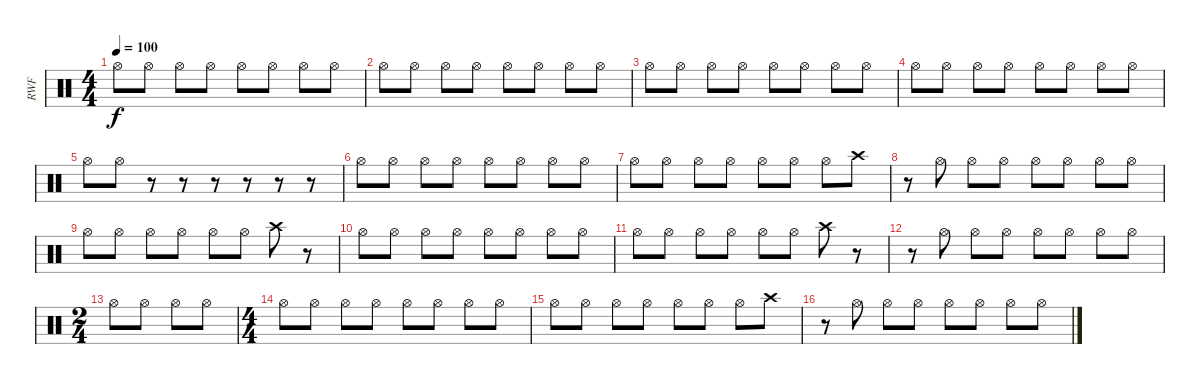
\track ("RWF" "RWF") {instrument percussion}
\staff {score}
\articulation defaults
\ts (4 4)
\tempo 100
\clef neutral
\ks c "Hi-Hat (open)".8{dy f} "Hi-Hat (open)".8 "Hi-Hat (open)".8 "Hi-Hat (open)".8 "Hi-Hat (open)".8 "Hi-Hat (open)".8 "Hi-Hat (open)".8 "Hi-Hat (open)".8
|
"Hi-Hat (open)".8 "Hi-Hat (open)".8 "Hi-Hat (open)".8 "Hi-Hat (open)".8 "Hi-Hat (open)".8 "Hi-Hat (open)".8 "Hi-Hat (open)".8 "Hi-Hat (open)".8 |
"Hi-Hat (open)".8 "Hi-Hat (open)".8 "Hi-Hat (open)".8 "Hi-Hat (open)".8 "Hi-Hat (open)".8 "Hi-Hat (open)".8 "Hi-Hat (open)".8 "Hi-Hat (open)".8 |
"Hi-Hat (open)".8 "Hi-Hat (open)".8 "Hi-Hat (open)".8 "Hi-Hat (open)".8 "Hi-Hat (open)".8 "Hi-Hat (open)".8 "Hi-Hat (open)".8 "Hi-Hat (open)".8 |
"Hi-Hat (open)".8 "Hi-Hat (open)".8 r.8 r.8 r.8 r.8 r.8 r.8 |
"Hi-Hat (open)".8 "Hi-Hat (open)".8 "Hi-Hat (open)".8 "Hi-Hat (open)".8 "Hi-Hat (open)".8 "Hi-Hat (open)".8 "Hi-Hat (open)".8 "Hi-Hat (open)".8 |
"Hi-Hat (open)".8 "Hi-Hat (open)".8 "Hi-Hat (open)".8 "Hi-Hat (open)".8 "Hi-Hat (open)".8 "Hi-Hat (open)".8 "Hi-Hat (open)".8 "Crash high (hit)".8 |
r.8 "Hi-Hat (open)".8 "Hi-Hat (open)".8 "Hi-Hat (open)".8 "Hi-Hat (open)".8 "Hi-Hat (open)".8 "Hi-Hat (open)".8 "Hi-Hat (open)".8 |
"Hi-Hat (open)".8 "Hi-Hat (open)".8 "Hi-Hat (open)".8 "Hi-Hat (open)".8 "Hi-Hat (open)".8 "Hi-Hat (open)".8 "Crash high (hit)".8 r.8 |
"Hi-Hat (open)".8 "Hi-Hat (open)".8 "Hi-Hat (open)".8 "Hi-Hat (open)".8 "Hi-Hat (open)".8 "Hi-Hat (open)".8 "Hi-Hat (open)".8 "Hi-Hat (open)".8 |
"Hi-Hat (open)".8 "Hi-Hat (open)".8 "Hi-Hat (open)".8 "Hi-Hat (open)".8 "Hi-Hat (open)".8 "Hi-Hat (open)".8 "Crash high (hit)".8 r.8 |
r.8 "Hi-Hat (open)".8 "Hi-Hat (open)".8 "Hi-Hat (open)".8 "Hi-Hat (open)".8 "Hi-Hat (open)".8 "Hi-Hat (open)".8 "Hi-Hat (open)".8 |
\ts (2 4)
"Hi-Hat (open)".8 "Hi-Hat (open)".8 "Hi-Hat (open)".8 "Hi-Hat (open)".8 |
\ts (4 4)
"Hi-Hat (open)".8 "Hi-Hat (open)".8 "Hi-Hat (open)".8 "Hi-Hat (open)".8 "Hi-Hat (open)".8 "Hi-Hat (open)".8 "Hi-Hat (open)".8 "Hi-Hat (open)".8 |
"Hi-Hat (open)".8 "Hi-Hat (open)".8 "Hi-Hat (open)".8 "Hi-Hat (open)".8 "Hi-Hat (open)".8 "Hi-Hat (open)".8 "Hi-Hat (open)".8 "Crash high (hit)".8 |
r.8 "Hi-Hat (open)".8 "Hi-Hat (open)".8 "Hi-Hat (open)".8 "Hi-Hat (open)".8 "Hi-Hat (open)".8 "Hi-Hat (open)".8 "Hi-Hat (open)".8
